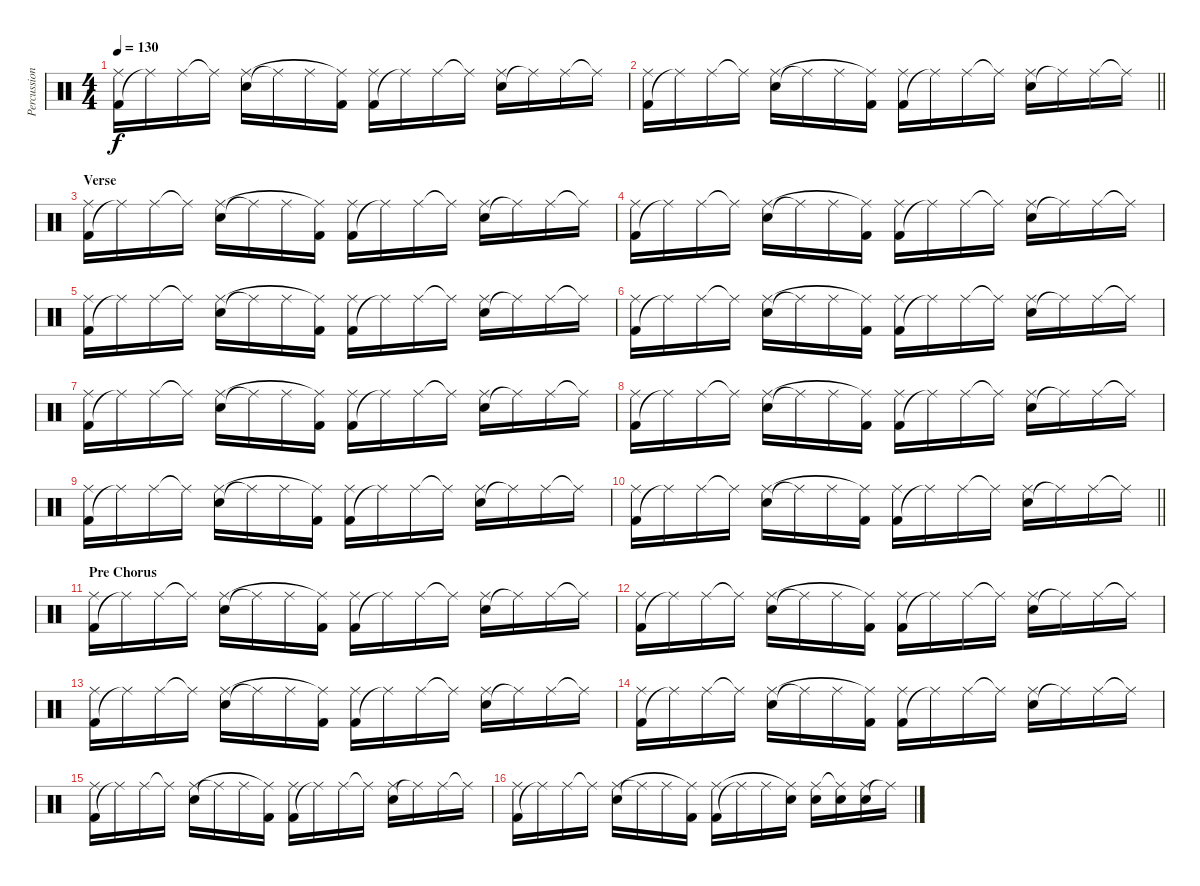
\track ("Percussion" "Percussion") {instrument percussion}
\staff {score}
\articulation defaults
\ts (4 4)
\tempo 130
\clef neutral
\ks c
("Kick (hit) 2" "Ride (middle)").16{dy f} "Ride (middle)"{t}.16 "Ride (middle)".16 "Ride (middle)"{t}.16 ("Snare (hit) 2" "Ride (middle)").16 "Ride (middle)"{t}.16 "Ride (middle)".16 ("Kick (hit) 2" "Ride (middle)"{t}).16 ("Kick (hit) 2" "Ride (middle)").16 "Ride (middle)"{t}.16 "Ride (middle)".16 "Ride (middle)"{t}.16 ("Snare (hit) 2" "Ride (middle)").16 "Ride (middle)"{t}.16 "Ride (middle)".16 "Ride (middle)"{t}.16 |
\barLineRight lightlight
("Kick (hit) 2" "Ride (middle)").16 "Ride (middle)"{t}.16 "Ride (middle)".16 "Ride (middle)"{t}.16 ("Snare (hit) 2" "Ride (middle)").16 "Ride (middle)"{t}.16 "Ride (middle)".16 ("Kick (hit) 2" "Ride (middle)"{t}).16 ("Kick (hit) 2" "Ride (middle)").16 "Ride (middle)"{t}.16 "Ride (middle)".16 "Ride (middle)"{t}.16 ("Snare (hit) 2" "Ride (middle)").16 "Ride (middle)"{t}.16 "Ride (middle)".16 "Ride (middle)"{t}.16 |
\section ("" "Verse")
("Kick (hit) 2" "Ride (middle)").16 "Ride (middle)"{t}.16 "Ride (middle)".16 "Ride (middle)"{t}.16 ("Snare (hit) 2" "Ride (middle)").16 "Ride (middle)"{t}.16 "Ride (middle)".16 ("Kick (hit) 2" "Ride (middle)"{t}).16 ("Kick (hit) 2" "Ride (middle)").16 "Ride (middle)"{t}.16 "Ride (middle)".16 "Ride (middle)"{t}.16 ("Snare (hit) 2" "Ride (middle)").16 "Ride (middle)"{t}.16 "Ride (middle)".16 "Ride (middle)"{t}.16 |
("Kick (hit) 2" "Ride (middle)").16 "Ride (middle)"{t}.16 "Ride (middle)".16 "Ride (middle)"{t}.16 ("Snare (hit) 2" "Ride (middle)").16 "Ride (middle)"{t}.16 "Ride (middle)".16 ("Kick (hit) 2" "Ride (middle)"{t}).16 ("Kick (hit) 2" "Ride (middle)").16 "Ride (middle)"{t}.16 "Ride (middle)".16 "Ride (middle)"{t}.16 ("Snare (hit) 2" "Ride (middle)").16 "Ride (middle)"{t}.16 "Ride (middle)".16 "Ride (middle)"{t}.16 |
("Kick (hit) 2" "Ride (middle)").16 "Ride (middle)"{t}.16 "Ride (middle)".16 "Ride (middle)"{t}.16 ("Snare (hit) 2" "Ride (middle)").16 "Ride (middle)"{t}.16 "Ride (middle)".16 ("Kick (hit) 2" "Ride (middle)"{t}).16 ("Kick (hit) 2" "Ride (middle)").16 "Ride (middle)"{t}.16 "Ride (middle)".16 "Ride (middle)"{t}.16 ("Snare (hit) 2" "Ride (middle)").16 "Ride (middle)"{t}.16 "Ride (middle)".16 "Ride (middle)"{t}.16 |
("Kick (hit) 2" "Ride (middle)").16 "Ride (middle)"{t}.16 "Ride (middle)".16 "Ride (middle)"{t}.16 ("Snare (hit) 2" "Ride (middle)").16 "Ride (middle)"{t}.16 "Ride (middle)".16 ("Kick (hit) 2" "Ride (middle)"{t}).16 ("Kick (hit) 2" "Ride (middle)").16 "Ride (middle)"{t}.16 "Ride (middle)".16 "Ride (middle)"{t}.16 ("Snare (hit) 2" "Ride (middle)").16 "Ride (middle)"{t}.16 "Ride (middle)".16 "Ride (middle)"{t}.16 |
("Kick (hit) 2" "Ride (middle)").16 "Ride (middle)"{t}.16 "Ride (middle)".16 "Ride (middle)"{t}.16 ("Snare (hit) 2" "Ride (middle)").16 "Ride (middle)"{t}.16 "Ride (middle)".16 ("Kick (hit) 2" "Ride (middle)"{t}).16 ("Kick (hit) 2" "Ride (middle)").16 "Ride (middle)"{t}.16 "Ride (middle)".16 "Ride (middle)"{t}.16 ("Snare (hit) 2" "Ride (middle)").16 "Ride (middle)"{t}.16 "Ride (middle)".16 "Ride (middle)"{t}.16 |
("Kick (hit) 2" "Ride (middle)").16 "Ride (middle)"{t}.16 "Ride (middle)".16 "Ride (middle)"{t}.16 ("Snare (hit) 2" "Ride (middle)").16 "Ride (middle)"{t}.16 "Ride (middle)".16 ("Kick (hit) 2" "Ride (middle)"{t}).16 ("Kick (hit) 2" "Ride (middle)").16 "Ride (middle)"{t}.16 "Ride (middle)".16 "Ride (middle)"{t}.16 ("Snare (hit) 2" "Ride (middle)").16 "Ride (middle)"{t}.16 "Ride (middle)".16 "Ride (middle)"{t}.16 |
("Kick (hit) 2" "Ride (middle)").16 "Ride (middle)"{t}.16 "Ride (middle)".16 "Ride (middle)"{t}.16 ("Snare (hit) 2" "Ride (middle)").16 "Ride (middle)"{t}.16 "Ride (middle)".16 ("Kick (hit) 2" "Ride (middle)"{t}).16 ("Kick (hit) 2" "Ride (middle)").16 "Ride (middle)"{t}.16 "Ride (middle)".16 "Ride (middle)"{t}.16 ("Snare (hit) 2" "Ride (middle)").16 "Ride (middle)"{t}.16 "Ride (middle)".16 "Ride (middle)"{t}.16 |
\barLineRight lightlight
("Kick (hit) 2" "Ride (middle)").16 "Ride (middle)"{t}.16 "Ride (middle)".16 "Ride (middle)"{t}.16 ("Snare (hit) 2" "Ride (middle)").16 "Ride (middle)"{t}.16 "Ride (middle)".16 ("Kick (hit) 2" "Ride (middle)"{t}).16 ("Kick (hit) 2" "Ride (middle)").16 "Ride (middle)"{t}.16 "Ride (middle)".16 "Ride (middle)"{t}.16 ("Snare (hit) 2" "Ride (middle)").16 "Ride (middle)"{t}.16 "Ride (middle)".16 "Ride (middle)"{t}.16 |
\section ("" "Pre Chorus")
("Kick (hit) 2" "Ride (middle)").16 "Ride (middle)"{t}.16 "Ride (middle)".16 "Ride (middle)"{t}.16 ("Snare (hit) 2" "Ride (middle)").16 "Ride (middle)"{t}.16 "Ride (middle)".16 ("Kick (hit) 2" "Ride (middle)"{t}).16 ("Kick (hit) 2" "Ride (middle)").16 "Ride (middle)"{t}.16 "Ride (middle)".16 "Ride (middle)"{t}.16 ("Snare (hit) 2" "Ride (middle)").16 "Ride (middle)"{t}.16 "Ride (middle)".16 "Ride (middle)"{t}.16 |
("Kick (hit) 2" "Ride (middle)").16 "Ride (middle)"{t}.16 "Ride (middle)".16 "Ride (middle)"{t}.16 ("Snare (hit) 2" "Ride (middle)").16 "Ride (middle)"{t}.16 "Ride (middle)".16 ("Kick (hit) 2" "Ride (middle)"{t}).16 ("Kick (hit) 2" "Ride (middle)").16 "Ride (middle)"{t}.16 "Ride (middle)".16 "Ride (middle)"{t}.16 ("Snare (hit) 2" "Ride (middle)").16 "Ride (middle)"{t}.16 "Ride (middle)".16 "Ride (middle)"{t}.16 |
("Kick (hit) 2" "Ride (middle)").16 "Ride (middle)"{t}.16 "Ride (middle)".16 "Ride (middle)"{t}.16 ("Snare (hit) 2" "Ride (middle)").16 "Ride (middle)"{t}.16 "Ride (middle)".16 ("Kick (hit) 2" "Ride (middle)"{t}).16 ("Kick (hit) 2" "Ride (middle)").16 "Ride (middle)"{t}.16 "Ride (middle)".16 "Ride (middle)"{t}.16 ("Snare (hit) 2" "Ride (middle)").16 "Ride (middle)"{t}.16 "Ride (middle)".16 "Ride (middle)"{t}.16 |
("Kick (hit) 2" "Ride (middle)").16 "Ride (middle)"{t}.16 "Ride (middle)".16 "Ride (middle)"{t}.16 ("Snare (hit) 2" "Ride (middle)").16 "Ride (middle)"{t}.16 "Ride (middle)".16 ("Kick (hit) 2" "Ride (middle)"{t}).16 ("Kick (hit) 2" "Ride (middle)").16 "Ride (middle)"{t}.16 "Ride (middle)".16 "Ride (middle)"{t}.16 ("Snare (hit) 2" "Ride (middle)").16 "Ride (middle)"{t}.16 "Ride (middle)".16 "Ride (middle)"{t}.16 |
("Kick (hit) 2" "Ride (middle)").16 "Ride (middle)"{t}.16 "Ride (middle)".16 "Ride (middle)"{t}.16 ("Snare (hit) 2" "Ride (middle)").16 "Ride (middle)"{t}.16 "Ride (middle)".16 ("Kick (hit) 2" "Ride (middle)"{t}).16 ("Kick (hit) 2" "Ride (middle)").16 "Ride (middle)"{t}.16 "Ride (middle)".16 "Ride (middle)"{t}.16 ("Snare (hit) 2" "Ride (middle)").16 "Ride (middle)"{t}.16 "Ride (middle)".16 "Ride (middle)"{t}.16 |
("Kick (hit) 2" "Ride (middle)").16 "Ride (middle)"{t}.16 "Ride (middle)".16 "Ride (middle)"{t}.16 ("Snare (hit) 2" "Ride (middle)").16 "Ride (middle)"{t}.16 "Ride (middle)".16 ("Kick (hit) 2" "Ride (middle)"{t}).16 ("Kick (hit) 2" "Ride (middle)").16 "Ride (middle)"{t}.16 "Ride (middle)".16 ("Electric Snare (hit)" "Ride (middle)"{t}).16 ("Electric Snare (hit)" "Ride (middle)").16 ("Electric Snare (hit)" "Ride (middle)"{t}).16 ("Electric Snare (hit)" "Ride (middle)").16 "Ride (middle)"{t}.16
